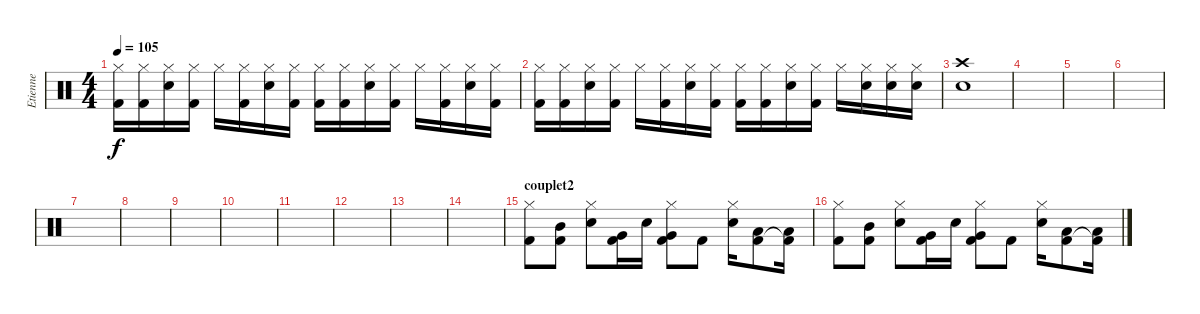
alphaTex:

\track ("Etienne" "Etienne") {instrument percussion}
\staff {score}
\articulation defaults
\ts (4 4)
\tempo 105
\clef neutral
\ks c
("Hi-Hat (closed)" "Kick (hit) 2").16{dy f} ("Hi-Hat (closed)" "Kick (hit) 2").16 ("Hi-Hat (closed)" "Electric Snare (hit)").16 ("Hi-Hat (closed)" "Kick (hit) 2").16 "Hi-Hat (closed)".16 ("Hi-Hat (closed)" "Kick (hit) 2").16 ("Hi-Hat (closed)" "Electric Snare (hit)").16 ("Hi-Hat (closed)" "Kick (hit) 2").16 ("Hi-Hat (closed)" "Kick (hit) 2").16 ("Hi-Hat (closed)" "Kick (hit) 2").16 ("Hi-Hat (closed)" "Electric Snare (hit)").16 ("Hi-Hat (closed)" "Kick (hit) 2").16 "Hi-Hat (closed)".16 ("Hi-Hat (closed)" "Kick (hit) 2").16 ("Hi-Hat (closed)" "Electric Snare (hit)").16 ("Hi-Hat (closed)" "Kick (hit) 2").16 |
("Hi-Hat (closed)" "Kick (hit) 2").16 ("Hi-Hat (closed)" "Kick (hit) 2").16 ("Hi-Hat (closed)" "Electric Snare (hit)").16 ("Hi-Hat (closed)" "Kick (hit) 2").16 "Hi-Hat (closed)".16 ("Hi-Hat (closed)" "Kick (hit) 2").16 ("Hi-Hat (closed)" "Electric Snare (hit)").16 ("Hi-Hat (closed)" "Kick (hit) 2").16 ("Hi-Hat (closed)" "Kick (hit) 2").16 ("Hi-Hat (closed)" "Kick (hit) 2").16 ("Hi-Hat (closed)" "Electric Snare (hit)").16 ("Hi-Hat (closed)" "Kick (hit) 2").16 "Hi-Hat (closed)".16 ("Hi-Hat (closed)" "Electric Snare (hit)").16 ("Hi-Hat (closed)" "Electric Snare (hit)").16 ("Hi-Hat (closed)" "Electric Snare (hit)").16 |
("Crash high (hit)" "Electric Snare (hit)").1 |
|
|
|
|
|
|
|
|
|
|
|
\section ("" "couplet2")
("Kick (hit) 2" "Hi-Hat (closed)").8 ("Kick (hit) 2" "Mid Tom (hit)").8 ("Snare (hit) 2" "Hi-Hat (closed)").8 ("Kick (hit) 2" "Very Low Tom (hit)").16 "Snare (hit) 2".16 ("Kick (hit) 2" "Hi-Hat (closed)" "Very Low Tom (hit)").8 "Kick (hit) 2".8 ("Snare (hit) 2" "Hi-Hat (closed)").16 ("Kick (hit) 2" "Low Floor Tom (hit)").8 ("Kick (hit) 2"{t} "Low Floor Tom (hit)").16 |
("Kick (hit) 2" "Hi-Hat (closed)").8 ("Kick (hit) 2" "Mid Tom (hit)").8 ("Snare (hit) 2" "Hi-Hat (closed)").8 ("Kick (hit) 2" "Very Low Tom (hit)").16 "Snare (hit) 2".16 ("Kick (hit) 2" "Hi-Hat (closed)" "Very Low Tom (hit)").8 "Kick (hit) 2".8 ("Snare (hit) 2" "Hi-Hat (closed)").16 ("Kick (hit) 2" "Low Floor Tom (hit)").8 ("Kick (hit) 2"{t} "Low Floor Tom (hit)").16
